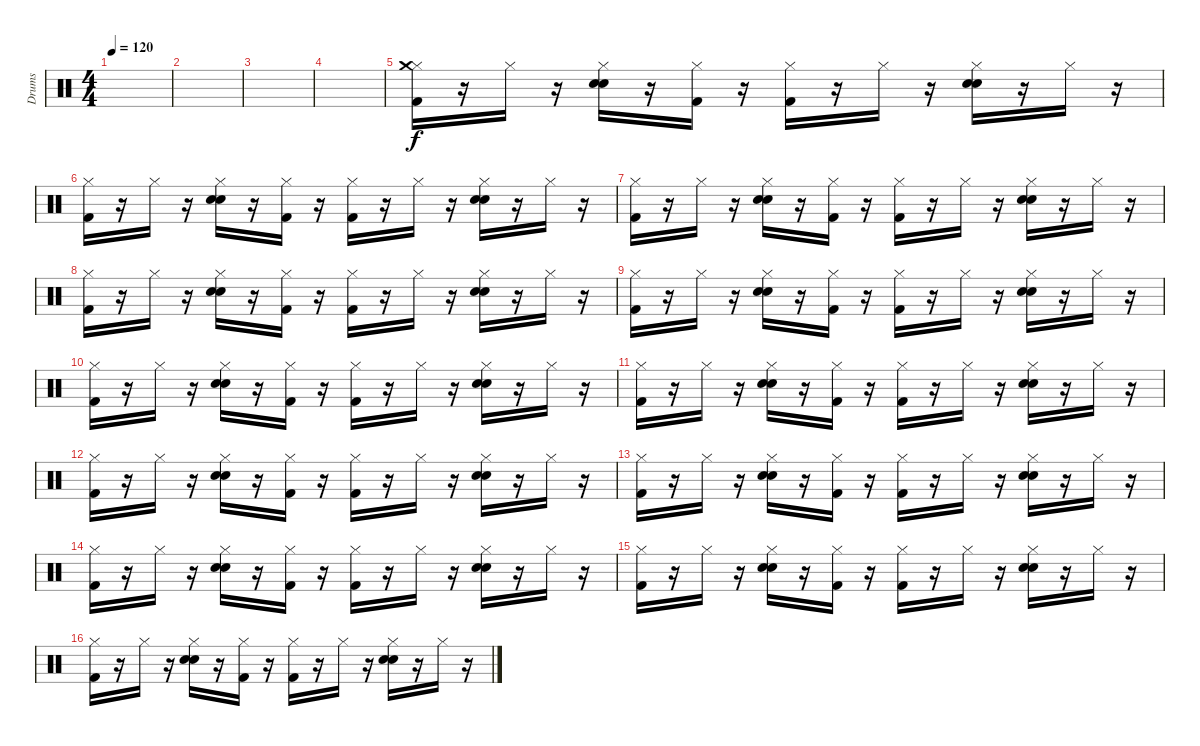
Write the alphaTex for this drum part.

\track ("Drums" "Drums") {instrument percussion}
\staff {score}
\articulation defaults
\ts (4 4)
\tempo 120
\clef neutral
\ks c
|
|
|
|
("Hi-Hat (closed)" "Crash medium (hit)" "Kick (hit) 2").16 r.16 "Hi-Hat (closed)".16 r.16 ("Hi-Hat (closed)" "Electric Snare (hit)" "Snare (hit) 2").16 r.16 ("Hi-Hat (closed)" "Kick (hit) 2").16 r.16 ("Hi-Hat (closed)" "Kick (hit) 2").16 r.16 "Hi-Hat (closed)".16 r.16 ("Hi-Hat (closed)" "Electric Snare (hit)" "Snare (hit) 2").16 r.16 "Hi-Hat (closed)".16 r.16 |
("Hi-Hat (closed)" "Kick (hit) 2").16 r.16 "Hi-Hat (closed)".16 r.16 ("Hi-Hat (closed)" "Electric Snare (hit)" "Snare (hit) 2").16 r.16 ("Hi-Hat (closed)" "Kick (hit) 2").16 r.16 ("Hi-Hat (closed)" "Kick (hit) 2").16 r.16 "Hi-Hat (closed)".16 r.16 ("Hi-Hat (closed)" "Electric Snare (hit)" "Snare (hit) 2").16 r.16 "Hi-Hat (closed)".16 r.16 |
("Hi-Hat (closed)" "Kick (hit) 2").16 r.16 "Hi-Hat (closed)".16 r.16 ("Hi-Hat (closed)" "Electric Snare (hit)" "Snare (hit) 2").16 r.16 ("Hi-Hat (closed)" "Kick (hit) 2").16 r.16 ("Hi-Hat (closed)" "Kick (hit) 2").16 r.16 "Hi-Hat (closed)".16 r.16 ("Hi-Hat (closed)" "Electric Snare (hit)" "Snare (hit) 2").16 r.16 "Hi-Hat (closed)".16 r.16 |
("Hi-Hat (closed)" "Kick (hit) 2").16 r.16 "Hi-Hat (closed)".16 r.16 ("Hi-Hat (closed)" "Electric Snare (hit)" "Snare (hit) 2").16 r.16 ("Hi-Hat (closed)" "Kick (hit) 2").16 r.16 ("Hi-Hat (closed)" "Kick (hit) 2").16 r.16 "Hi-Hat (closed)".16 r.16 ("Hi-Hat (closed)" "Electric Snare (hit)" "Snare (hit) 2").16 r.16 "Hi-Hat (closed)".16 r.16 |
("Hi-Hat (closed)" "Kick (hit) 2").16 r.16 "Hi-Hat (closed)".16 r.16 ("Hi-Hat (closed)" "Electric Snare (hit)" "Snare (hit) 2").16 r.16 ("Hi-Hat (closed)" "Kick (hit) 2").16 r.16 ("Hi-Hat (closed)" "Kick (hit) 2").16 r.16 "Hi-Hat (closed)".16 r.16 ("Hi-Hat (closed)" "Electric Snare (hit)" "Snare (hit) 2").16 r.16 "Hi-Hat (closed)".16 r.16 |
("Hi-Hat (closed)" "Kick (hit) 2").16 r.16 "Hi-Hat (closed)".16 r.16 ("Hi-Hat (closed)" "Electric Snare (hit)" "Snare (hit) 2").16 r.16 ("Hi-Hat (closed)" "Kick (hit) 2").16 r.16 ("Hi-Hat (closed)" "Kick (hit) 2").16 r.16 "Hi-Hat (closed)".16 r.16 ("Hi-Hat (closed)" "Electric Snare (hit)" "Snare (hit) 2").16 r.16 "Hi-Hat (closed)".16 r.16 |
("Hi-Hat (closed)" "Kick (hit) 2").16 r.16 "Hi-Hat (closed)".16 r.16 ("Hi-Hat (closed)" "Electric Snare (hit)" "Snare (hit) 2").16 r.16 ("Hi-Hat (closed)" "Kick (hit) 2").16 r.16 ("Hi-Hat (closed)" "Kick (hit) 2").16 r.16 "Hi-Hat (closed)".16 r.16 ("Hi-Hat (closed)" "Electric Snare (hit)" "Snare (hit) 2").16 r.16 "Hi-Hat (closed)".16 r.16 |
("Hi-Hat (closed)" "Kick (hit) 2").16 r.16 "Hi-Hat (closed)".16 r.16 ("Hi-Hat (closed)" "Electric Snare (hit)" "Snare (hit) 2").16 r.16 ("Hi-Hat (closed)" "Kick (hit) 2").16 r.16 ("Hi-Hat (closed)" "Kick (hit) 2").16 r.16 "Hi-Hat (closed)".16 r.16 ("Hi-Hat (closed)" "Electric Snare (hit)" "Snare (hit) 2").16 r.16 "Hi-Hat (closed)".16 r.16 |
("Hi-Hat (closed)" "Kick (hit) 2").16 r.16 "Hi-Hat (closed)".16 r.16 ("Hi-Hat (closed)" "Electric Snare (hit)" "Snare (hit) 2").16 r.16 ("Hi-Hat (closed)" "Kick (hit) 2").16 r.16 ("Hi-Hat (closed)" "Kick (hit) 2").16 r.16 "Hi-Hat (closed)".16 r.16 ("Hi-Hat (closed)" "Electric Snare (hit)" "Snare (hit) 2").16 r.16 "Hi-Hat (closed)".16 r.16 |
("Hi-Hat (closed)" "Kick (hit) 2").16 r.16 "Hi-Hat (closed)".16 r.16 ("Hi-Hat (closed)" "Electric Snare (hit)" "Snare (hit) 2").16 r.16 ("Hi-Hat (closed)" "Kick (hit) 2").16 r.16 ("Hi-Hat (closed)" "Kick (hit) 2").16 r.16 "Hi-Hat (closed)".16 r.16 ("Hi-Hat (closed)" "Electric Snare (hit)" "Snare (hit) 2").16 r.16 "Hi-Hat (closed)".16 r.16 |
("Hi-Hat (closed)" "Kick (hit) 2").16 r.16 "Hi-Hat (closed)".16 r.16 ("Hi-Hat (closed)" "Electric Snare (hit)" "Snare (hit) 2").16 r.16 ("Hi-Hat (closed)" "Kick (hit) 2").16 r.16 ("Hi-Hat (closed)" "Kick (hit) 2").16 r.16 "Hi-Hat (closed)".16 r.16 ("Hi-Hat (closed)" "Electric Snare (hit)" "Snare (hit) 2").16 r.16 "Hi-Hat (closed)".16 r.16 |
("Hi-Hat (closed)" "Kick (hit) 2").16 r.16 "Hi-Hat (closed)".16 r.16 ("Hi-Hat (closed)" "Electric Snare (hit)" "Snare (hit) 2").16 r.16 ("Hi-Hat (closed)" "Kick (hit) 2").16 r.16 ("Hi-Hat (closed)" "Kick (hit) 2").16 r.16 "Hi-Hat (closed)".16 r.16 ("Hi-Hat (closed)" "Electric Snare (hit)" "Snare (hit) 2").16 r.16 "Hi-Hat (closed)".16 r.16
